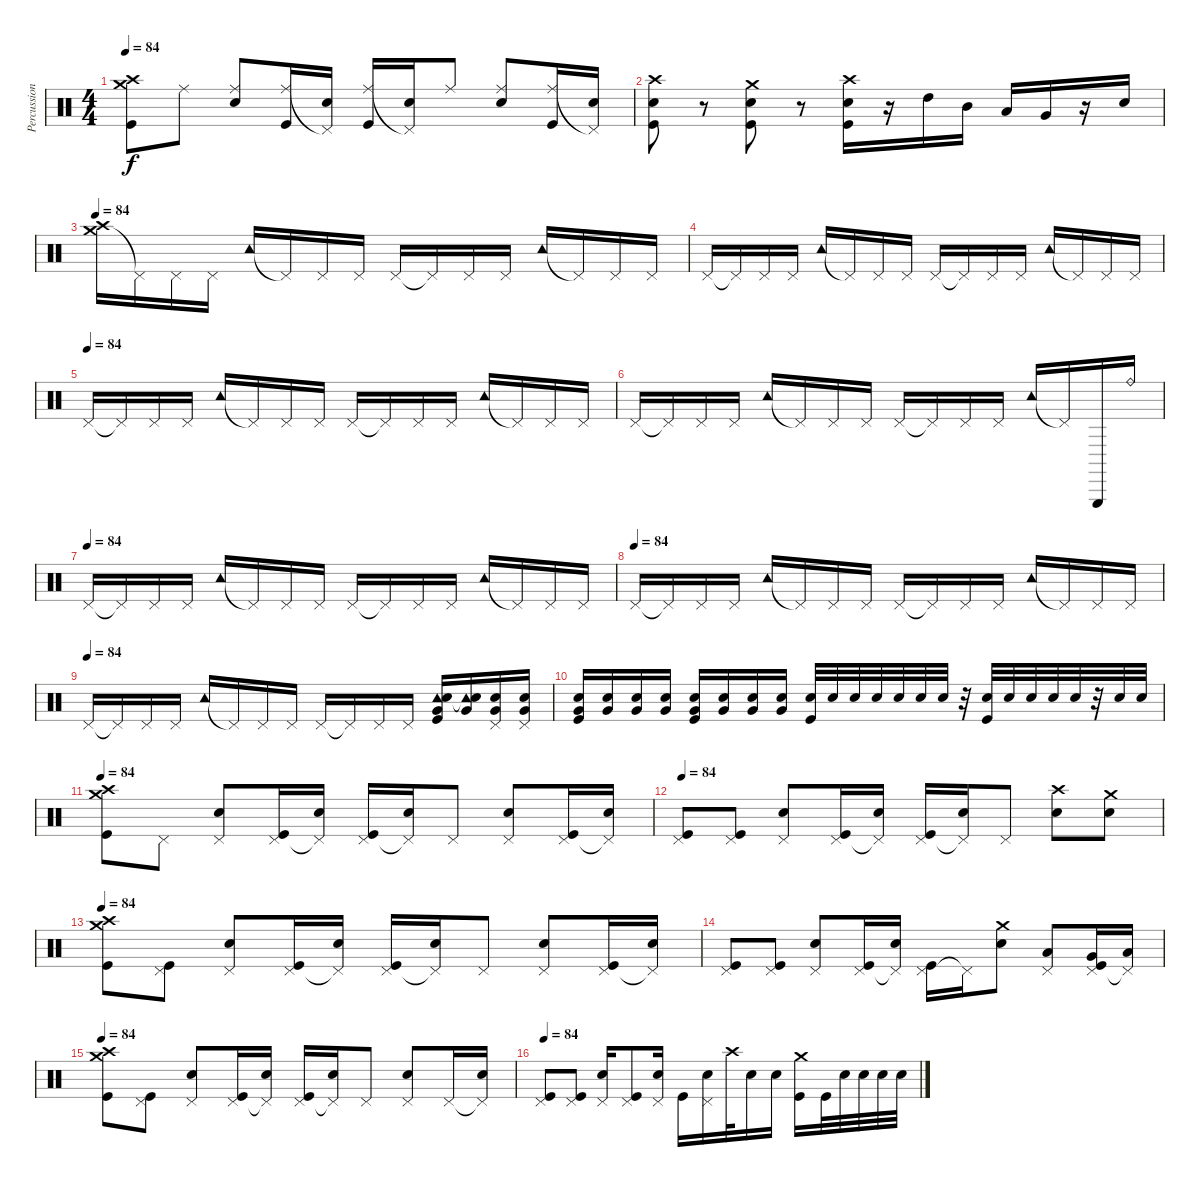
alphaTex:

\track ("Percussion" "Percussion") {instrument percussion}
\staff {score}
\articulation defaults
\ts (4 4)
\tempo 84
\clef neutral
\ks c
("Crash medium (hit)" "Crash high (hit)" "Kick (hit)").8{dy f} "Ride (middle)".8 ("Ride (middle)" "Electric Snare (hit)").8 ("Ride (middle)" "Kick (hit)").16 ("Pedal Hi-Hat (hit)"{t} "Electric Snare (hit)").16 ("Ride (middle)" "Kick (hit)").16 ("Pedal Hi-Hat (hit)"{t} "Electric Snare (hit)").16 "Ride (middle)".8 ("Ride (middle)" "Electric Snare (hit)").8 ("Ride (middle)" "Kick (hit)").16 ("Pedal Hi-Hat (hit)"{t} "Electric Snare (hit)").16 |
("Crash high (hit)" "Electric Snare (hit)" "Kick (hit)").8 r.8 ("Crash medium (hit)" "Electric Snare (hit)" "Kick (hit)").8 r.8 ("Crash high (hit)" "Electric Snare (hit)" "Kick (hit)").16 r.16 "High Tom (hit)".16 "Mid Tom (hit)".16 "Low Tom (hit)".16 "Very Low Tom (hit)".16 r.16 "Electric Snare (hit)".16 |
\tempo 84
("Crash medium (hit)" "Crash high (hit)").16 "Pedal Hi-Hat (hit)"{t}.16 "Pedal Hi-Hat (hit)".16 "Pedal Hi-Hat (hit)".16 "Tambourine (hit)".16 "Pedal Hi-Hat (hit)"{t}.16 "Pedal Hi-Hat (hit)".16 "Pedal Hi-Hat (hit)".16 "Pedal Hi-Hat (hit)".16 "Pedal Hi-Hat (hit)"{t}.16 "Pedal Hi-Hat (hit)".16 "Pedal Hi-Hat (hit)".16 "Tambourine (hit)".16 "Pedal Hi-Hat (hit)"{t}.16 "Pedal Hi-Hat (hit)".16 "Pedal Hi-Hat (hit)".16 |
"Pedal Hi-Hat (hit)".16 "Pedal Hi-Hat (hit)"{t}.16 "Pedal Hi-Hat (hit)".16 "Pedal Hi-Hat (hit)".16 "Tambourine (hit)".16 "Pedal Hi-Hat (hit)"{t}.16 "Pedal Hi-Hat (hit)".16 "Pedal Hi-Hat (hit)".16 "Pedal Hi-Hat (hit)".16 "Pedal Hi-Hat (hit)"{t}.16 "Pedal Hi-Hat (hit)".16 "Pedal Hi-Hat (hit)".16 "Tambourine (hit)".16 "Pedal Hi-Hat (hit)"{t}.16 "Pedal Hi-Hat (hit)".16 "Pedal Hi-Hat (hit)".16 |
\tempo 105
\tempo (84)
"Pedal Hi-Hat (hit)".16 "Pedal Hi-Hat (hit)"{t}.16 "Pedal Hi-Hat (hit)".16 "Pedal Hi-Hat (hit)".16 "Tambourine (hit)".16 "Pedal Hi-Hat (hit)"{t}.16 "Pedal Hi-Hat (hit)".16 "Pedal Hi-Hat (hit)".16 "Pedal Hi-Hat (hit)".16 "Pedal Hi-Hat (hit)"{t}.16 "Pedal Hi-Hat (hit)".16 "Pedal Hi-Hat (hit)".16 "Tambourine (hit)".16 "Pedal Hi-Hat (hit)"{t}.16 "Pedal Hi-Hat (hit)".16 "Pedal Hi-Hat (hit)".16 |
"Pedal Hi-Hat (hit)".16 "Pedal Hi-Hat (hit)"{t}.16 "Pedal Hi-Hat (hit)".16 "Pedal Hi-Hat (hit)".16 "Tambourine (hit)".16 "Pedal Hi-Hat (hit)"{t}.16 "Pedal Hi-Hat (hit)".16 "Pedal Hi-Hat (hit)".16 "Pedal Hi-Hat (hit)".16 "Pedal Hi-Hat (hit)"{t}.16 "Pedal Hi-Hat (hit)".16 "Pedal Hi-Hat (hit)".16 "Tambourine (hit)".16 "Pedal Hi-Hat (hit)"{t}.16 "Triangle (hit)".16 "Ride (bell)".16 |
\tempo (84)
"Pedal Hi-Hat (hit)".16 "Pedal Hi-Hat (hit)"{t}.16 "Pedal Hi-Hat (hit)".16 "Pedal Hi-Hat (hit)".16 "Tambourine (hit)".16 "Pedal Hi-Hat (hit)"{t}.16 "Pedal Hi-Hat (hit)".16 "Pedal Hi-Hat (hit)".16 "Pedal Hi-Hat (hit)".16 "Pedal Hi-Hat (hit)"{t}.16 "Pedal Hi-Hat (hit)".16 "Pedal Hi-Hat (hit)".16 "Tambourine (hit)".16 "Pedal Hi-Hat (hit)"{t}.16 "Pedal Hi-Hat (hit)".16 "Pedal Hi-Hat (hit)".16 |
\tempo (84)
"Pedal Hi-Hat (hit)".16 "Pedal Hi-Hat (hit)"{t}.16 "Pedal Hi-Hat (hit)".16 "Pedal Hi-Hat (hit)".16 "Tambourine (hit)".16 "Pedal Hi-Hat (hit)"{t}.16 "Pedal Hi-Hat (hit)".16 "Pedal Hi-Hat (hit)".16 "Pedal Hi-Hat (hit)".16 "Pedal Hi-Hat (hit)"{t}.16 "Pedal Hi-Hat (hit)".16 "Pedal Hi-Hat (hit)".16 "Tambourine (hit)".16 "Pedal Hi-Hat (hit)"{t}.16 "Pedal Hi-Hat (hit)".16 "Pedal Hi-Hat (hit)".16 |
\tempo (84)
"Pedal Hi-Hat (hit)".16 "Pedal Hi-Hat (hit)"{t}.16 "Pedal Hi-Hat (hit)".16 "Pedal Hi-Hat (hit)".16 "Tambourine (hit)".16 "Pedal Hi-Hat (hit)"{t}.16 "Pedal Hi-Hat (hit)".16 "Pedal Hi-Hat (hit)".16 "Pedal Hi-Hat (hit)".16 "Pedal Hi-Hat (hit)"{t}.16 "Pedal Hi-Hat (hit)".16 "Pedal Hi-Hat (hit)".16 ("Tambourine (hit)" "Very Low Tom (hit)" "Electric Snare (hit)" "Kick (hit)").16{volume 8} ("Tambourine (hit)"{t} "Very Low Tom (hit)" "Electric Snare (hit)").16{volume 10} ("Pedal Hi-Hat (hit)" "Very Low Tom (hit)" "Electric Snare (hit)").16 ("Pedal Hi-Hat (hit)" "Very Low Tom (hit)" "Electric Snare (hit)").16 |
("Very Low Tom (hit)" "Electric Snare (hit)" "Kick (hit)").16{volume 13} ("Very Low Tom (hit)" "Electric Snare (hit)").16 ("Very Low Tom (hit)" "Electric Snare (hit)").16 ("Very Low Tom (hit)" "Electric Snare (hit)").16 ("Very Low Tom (hit)" "Electric Snare (hit)" "Kick (hit)").16 ("Very Low Tom (hit)" "Electric Snare (hit)").16 ("Very Low Tom (hit)" "Electric Snare (hit)").16 ("Very Low Tom (hit)" "Electric Snare (hit)").16 ("Electric Snare (hit)" "Kick (hit)").32 "Electric Snare (hit)".32 "Electric Snare (hit)".32 "Electric Snare (hit)".32 "Electric Snare (hit)".32 "Electric Snare (hit)".32 "Electric Snare (hit)".32 r.32 ("Electric Snare (hit)" "Kick (hit)").32 "Electric Snare (hit)".32 "Electric Snare (hit)".32 "Electric Snare (hit)".32 "Electric Snare (hit)".32 r.32 "Electric Snare (hit)".32 "Electric Snare (hit)".32 |
\tempo 84
("Crash medium (hit)" "Crash high (hit)" "Kick (hit)").8 "Pedal Hi-Hat (hit)".8 ("Pedal Hi-Hat (hit)" "Electric Snare (hit)").8 ("Pedal Hi-Hat (hit)" "Kick (hit)").16 ("Pedal Hi-Hat (hit)"{t} "Electric Snare (hit)").16 ("Pedal Hi-Hat (hit)" "Kick (hit)").16 ("Pedal Hi-Hat (hit)"{t} "Electric Snare (hit)").16 "Pedal Hi-Hat (hit)".8 ("Pedal Hi-Hat (hit)" "Electric Snare (hit)").8 ("Pedal Hi-Hat (hit)" "Kick (hit)").16 ("Pedal Hi-Hat (hit)"{t} "Electric Snare (hit)").16 |
\tempo 84
("Pedal Hi-Hat (hit)" "Kick (hit)").8 ("Pedal Hi-Hat (hit)" "Kick (hit)").8 ("Pedal Hi-Hat (hit)" "Electric Snare (hit)").8 ("Pedal Hi-Hat (hit)" "Kick (hit)").16 ("Pedal Hi-Hat (hit)"{t} "Electric Snare (hit)").16 ("Pedal Hi-Hat (hit)" "Kick (hit)").16 ("Pedal Hi-Hat (hit)"{t} "Electric Snare (hit)").16 "Pedal Hi-Hat (hit)".8 ("Crash high (hit)" "Electric Snare (hit)").8 ("Crash medium (hit)" "Electric Snare (hit)").8 |
\tempo 84
("Crash medium (hit)" "Crash high (hit)" "Kick (hit)").8 ("Pedal Hi-Hat (hit)" "Kick (hit)").8 ("Pedal Hi-Hat (hit)" "Electric Snare (hit)").8 ("Pedal Hi-Hat (hit)" "Kick (hit)").16 ("Pedal Hi-Hat (hit)"{t} "Electric Snare (hit)").16 ("Pedal Hi-Hat (hit)" "Kick (hit)").16 ("Pedal Hi-Hat (hit)"{t} "Electric Snare (hit)").16 "Pedal Hi-Hat (hit)".8 ("Pedal Hi-Hat (hit)" "Electric Snare (hit)").8 ("Pedal Hi-Hat (hit)" "Kick (hit)").16 ("Pedal Hi-Hat (hit)"{t} "Electric Snare (hit)").16 |
("Pedal Hi-Hat (hit)" "Kick (hit)").8 ("Pedal Hi-Hat (hit)" "Kick (hit)").8 ("Pedal Hi-Hat (hit)" "Electric Snare (hit)").8 ("Pedal Hi-Hat (hit)" "Kick (hit)").16 ("Pedal Hi-Hat (hit)"{t} "Electric Snare (hit)").16 ("Pedal Hi-Hat (hit)" "Kick (hit)").16 "Pedal Hi-Hat (hit)"{t}.16 ("Crash medium (hit)" "Electric Snare (hit)").8 ("Pedal Hi-Hat (hit)" "Low Tom (hit)").8 ("Pedal Hi-Hat (hit)" "Very Low Tom (hit)" "Kick (hit)").16 ("Pedal Hi-Hat (hit)"{t} "Low Floor Tom (hit)").16 |
\tempo 84
("Crash medium (hit)" "Crash high (hit)" "Kick (hit)").8 ("Pedal Hi-Hat (hit)" "Kick (hit)").8 ("Pedal Hi-Hat (hit)" "Electric Snare (hit)").8 ("Pedal Hi-Hat (hit)" "Kick (hit)").16 ("Pedal Hi-Hat (hit)"{t} "Electric Snare (hit)").16 ("Pedal Hi-Hat (hit)" "Kick (hit)").16 ("Pedal Hi-Hat (hit)"{t} "Electric Snare (hit)").16 "Pedal Hi-Hat (hit)".8 ("Pedal Hi-Hat (hit)" "Electric Snare (hit)").8 "Pedal Hi-Hat (hit)".16 ("Pedal Hi-Hat (hit)"{t} "Electric Snare (hit)").16 |
\tempo 84
("Pedal Hi-Hat (hit)" "Kick (hit)").8 ("Pedal Hi-Hat (hit)" "Kick (hit)").8 ("Pedal Hi-Hat (hit)" "Electric Snare (hit)").16 ("Pedal Hi-Hat (hit)" "Kick (hit)").8 ("Pedal Hi-Hat (hit)" "Electric Snare (hit)").16 "Kick (hit)".16 ("Pedal Hi-Hat (hit)" "Electric Snare (hit)").16 "Crash high (hit)".32 "Electric Snare (hit)".16 "Electric Snare (hit)".16 ("Crash medium (hit)" "Kick (hit)").16 "Kick (hit)".32 "Electric Snare (hit)".32 "Electric Snare (hit)".32 "Electric Snare (hit)".32 "Electric Snare (hit)".32
